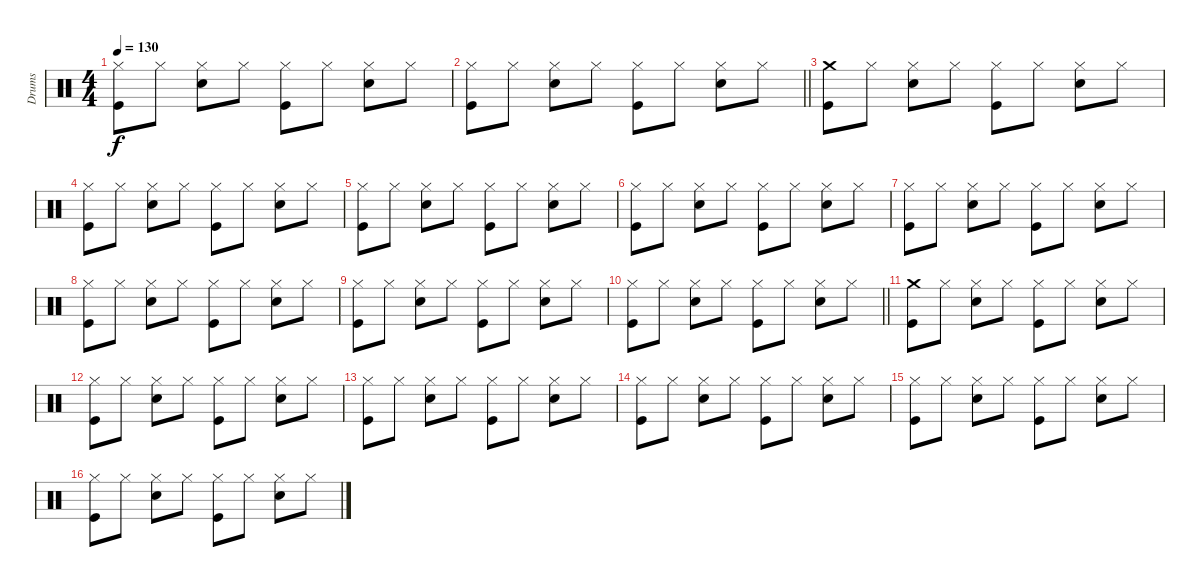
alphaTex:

\track ("Drums" "Drums") {instrument percussion}
\staff {score}
\articulation defaults
\ts (4 4)
\tempo 130
\clef neutral
\ks c
("Hi-Hat (closed)" "Kick (hit)").8{dy f} "Hi-Hat (closed)".8 ("Hi-Hat (closed)" "Snare (hit) 2").8 "Hi-Hat (closed)".8 ("Hi-Hat (closed)" "Kick (hit)").8 "Hi-Hat (closed)".8 ("Hi-Hat (closed)" "Snare (hit) 2").8 "Hi-Hat (closed)".8 |
\barLineRight lightlight
("Hi-Hat (closed)" "Kick (hit)").8 "Hi-Hat (closed)".8 ("Hi-Hat (closed)" "Snare (hit) 2").8 "Hi-Hat (closed)".8 ("Hi-Hat (closed)" "Kick (hit)").8 "Hi-Hat (closed)".8 ("Hi-Hat (closed)" "Snare (hit) 2").8 "Hi-Hat (closed)".8 |
("Crash medium (hit)" "Kick (hit)").8 "Hi-Hat (closed)".8 ("Hi-Hat (closed)" "Snare (hit) 2").8 "Hi-Hat (closed)".8 ("Hi-Hat (closed)" "Kick (hit)").8 "Hi-Hat (closed)".8 ("Hi-Hat (closed)" "Snare (hit) 2").8 "Hi-Hat (closed)".8 |
("Hi-Hat (closed)" "Kick (hit)").8 "Hi-Hat (closed)".8 ("Hi-Hat (closed)" "Snare (hit) 2").8 "Hi-Hat (closed)".8 ("Hi-Hat (closed)" "Kick (hit)").8 "Hi-Hat (closed)".8 ("Hi-Hat (closed)" "Snare (hit) 2").8 "Hi-Hat (closed)".8 |
("Hi-Hat (closed)" "Kick (hit)").8 "Hi-Hat (closed)".8 ("Hi-Hat (closed)" "Snare (hit) 2").8 "Hi-Hat (closed)".8 ("Hi-Hat (closed)" "Kick (hit)").8 "Hi-Hat (closed)".8 ("Hi-Hat (closed)" "Snare (hit) 2").8 "Hi-Hat (closed)".8 |
("Hi-Hat (closed)" "Kick (hit)").8 "Hi-Hat (closed)".8 ("Hi-Hat (closed)" "Snare (hit) 2").8 "Hi-Hat (closed)".8 ("Hi-Hat (closed)" "Kick (hit)").8 "Hi-Hat (closed)".8 ("Hi-Hat (closed)" "Snare (hit) 2").8 "Hi-Hat (closed)".8 |
("Hi-Hat (closed)" "Kick (hit)").8 "Hi-Hat (closed)".8 ("Hi-Hat (closed)" "Snare (hit) 2").8 "Hi-Hat (closed)".8 ("Hi-Hat (closed)" "Kick (hit)").8 "Hi-Hat (closed)".8 ("Hi-Hat (closed)" "Snare (hit) 2").8 "Hi-Hat (closed)".8 |
("Hi-Hat (closed)" "Kick (hit)").8 "Hi-Hat (closed)".8 ("Hi-Hat (closed)" "Snare (hit) 2").8 "Hi-Hat (closed)".8 ("Hi-Hat (closed)" "Kick (hit)").8 "Hi-Hat (closed)".8 ("Hi-Hat (closed)" "Snare (hit) 2").8 "Hi-Hat (closed)".8 |
("Hi-Hat (closed)" "Kick (hit)").8 "Hi-Hat (closed)".8 ("Hi-Hat (closed)" "Snare (hit) 2").8 "Hi-Hat (closed)".8 ("Hi-Hat (closed)" "Kick (hit)").8 "Hi-Hat (closed)".8 ("Hi-Hat (closed)" "Snare (hit) 2").8 "Hi-Hat (closed)".8 |
\barLineRight lightlight
("Hi-Hat (closed)" "Kick (hit)").8 "Hi-Hat (closed)".8 ("Hi-Hat (closed)" "Snare (hit) 2").8 "Hi-Hat (closed)".8 ("Hi-Hat (closed)" "Kick (hit)").8 "Hi-Hat (closed)".8 ("Hi-Hat (closed)" "Snare (hit) 2").8 "Hi-Hat (closed)".8 |
("Crash medium (hit)" "Kick (hit)").8 "Hi-Hat (closed)".8 ("Hi-Hat (closed)" "Snare (hit) 2").8 "Hi-Hat (closed)".8 ("Hi-Hat (closed)" "Kick (hit)").8 "Hi-Hat (closed)".8 ("Hi-Hat (closed)" "Snare (hit) 2").8 "Hi-Hat (closed)".8 |
("Hi-Hat (closed)" "Kick (hit)").8 "Hi-Hat (closed)".8 ("Hi-Hat (closed)" "Snare (hit) 2").8 "Hi-Hat (closed)".8 ("Hi-Hat (closed)" "Kick (hit)").8 "Hi-Hat (closed)".8 ("Hi-Hat (closed)" "Snare (hit) 2").8 "Hi-Hat (closed)".8 |
("Hi-Hat (closed)" "Kick (hit)").8 "Hi-Hat (closed)".8 ("Hi-Hat (closed)" "Snare (hit) 2").8 "Hi-Hat (closed)".8 ("Hi-Hat (closed)" "Kick (hit)").8 "Hi-Hat (closed)".8 ("Hi-Hat (closed)" "Snare (hit) 2").8 "Hi-Hat (closed)".8 |
("Hi-Hat (closed)" "Kick (hit)").8 "Hi-Hat (closed)".8 ("Hi-Hat (closed)" "Snare (hit) 2").8 "Hi-Hat (closed)".8 ("Hi-Hat (closed)" "Kick (hit)").8 "Hi-Hat (closed)".8 ("Hi-Hat (closed)" "Snare (hit) 2").8 "Hi-Hat (closed)".8 |
("Hi-Hat (closed)" "Kick (hit)").8 "Hi-Hat (closed)".8 ("Hi-Hat (closed)" "Snare (hit) 2").8 "Hi-Hat (closed)".8 ("Hi-Hat (closed)" "Kick (hit)").8 "Hi-Hat (closed)".8 ("Hi-Hat (closed)" "Snare (hit) 2").8 "Hi-Hat (closed)".8 |
("Hi-Hat (closed)" "Kick (hit)").8 "Hi-Hat (closed)".8 ("Hi-Hat (closed)" "Snare (hit) 2").8 "Hi-Hat (closed)".8 ("Hi-Hat (closed)" "Kick (hit)").8 "Hi-Hat (closed)".8 ("Hi-Hat (closed)" "Snare (hit) 2").8 "Hi-Hat (closed)".8
